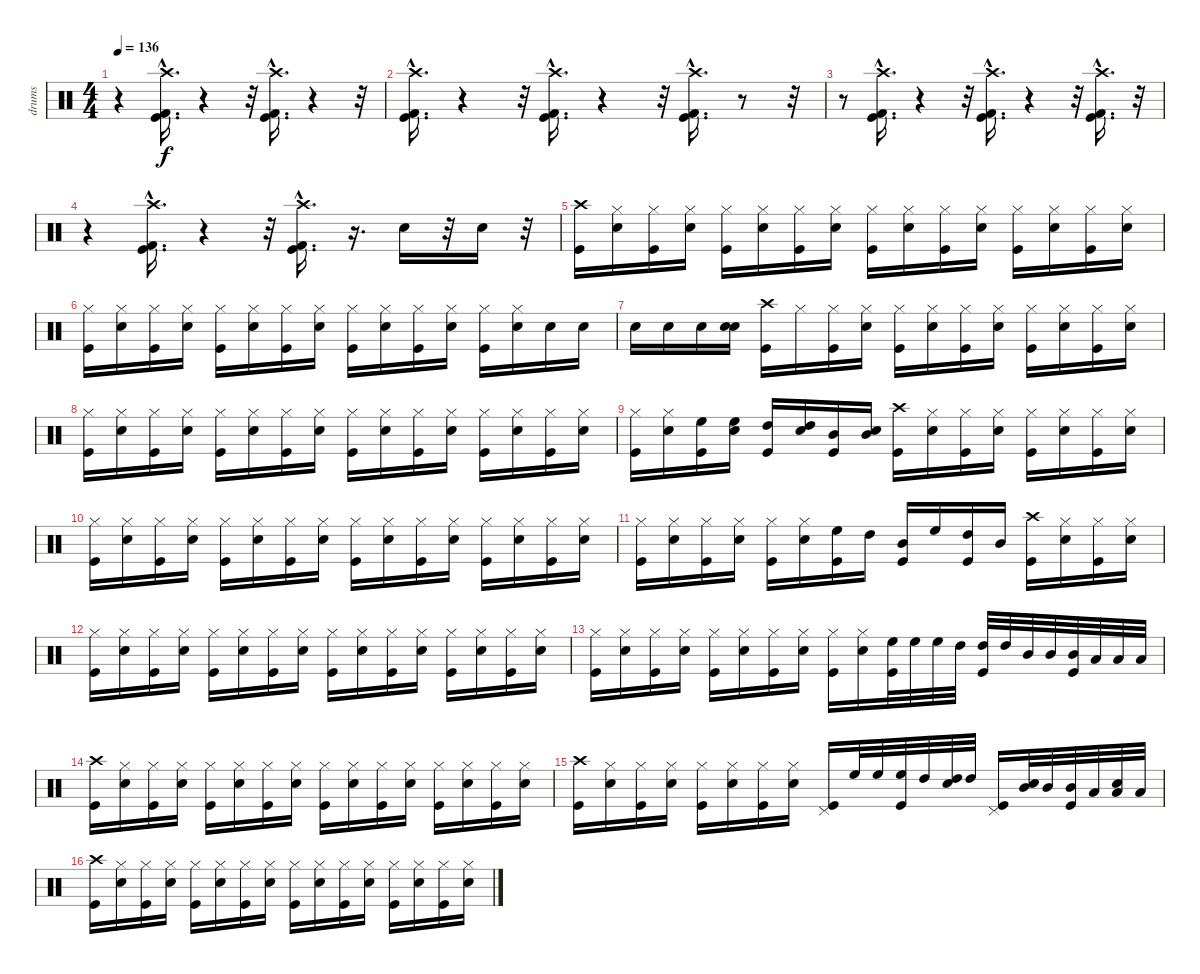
\track ("drums" "drums") {instrument percussion}
\staff {score}
\articulation defaults
\ts (4 4)
\tempo 136
\clef neutral
\ks c
r.4{dy f} ("Crash high (hit)"{hac} "Kick (hit) 2" "Kick (hit)").16{d} r.4 r.32 ("Kick (hit) 2" "Kick (hit)" "Crash high (hit)"{hac}).16{d} r.4 r.32 |
("Crash high (hit)"{hac} "Kick (hit) 2" "Kick (hit)").16{d} r.4 r.32 ("Kick (hit) 2" "Kick (hit)" "Crash high (hit)"{hac}).16{d} r.4 r.32 ("Crash high (hit)"{hac} "Kick (hit) 2" "Kick (hit)").16{d} r.8 r.32 |
r.8 ("Kick (hit) 2" "Kick (hit)" "Crash high (hit)"{hac}).16{d} r.4 r.32 ("Crash high (hit)"{hac} "Kick (hit) 2" "Kick (hit)").16{d} r.4 r.32 ("Kick (hit) 2" "Kick (hit)" "Crash high (hit)"{hac}).16{d} r.32 |
r.4 ("Crash high (hit)"{hac} "Kick (hit) 2" "Kick (hit)").16{d} r.4 r.32 ("Kick (hit) 2" "Kick (hit)" "Crash high (hit)"{hac}).16{d} r.16{d} "Snare (hit) 2".16 r.32 "Snare (hit) 2".16 r.32 |
("Crash high (hit)" "Kick (hit)").16 ("Hi-Hat (closed)" "Snare (hit) 2").16 ("Hi-Hat (closed)" "Kick (hit)").16 ("Hi-Hat (closed)" "Snare (hit) 2").16 ("Hi-Hat (closed)" "Kick (hit)").16 ("Hi-Hat (closed)" "Snare (hit) 2").16 ("Hi-Hat (closed)" "Kick (hit)").16 ("Hi-Hat (closed)" "Snare (hit) 2").16 ("Hi-Hat (closed)" "Kick (hit)").16 ("Hi-Hat (closed)" "Snare (hit) 2").16 ("Hi-Hat (closed)" "Kick (hit)").16 ("Hi-Hat (closed)" "Snare (hit) 2").16 ("Hi-Hat (closed)" "Kick (hit)").16 ("Hi-Hat (closed)" "Snare (hit) 2").16 ("Hi-Hat (closed)" "Kick (hit)").16 ("Hi-Hat (closed)" "Snare (hit) 2").16 |
("Hi-Hat (closed)" "Kick (hit)").16 ("Hi-Hat (closed)" "Snare (hit) 2").16 ("Hi-Hat (closed)" "Kick (hit)").16 ("Hi-Hat (closed)" "Snare (hit) 2").16 ("Hi-Hat (closed)" "Kick (hit)").16 ("Hi-Hat (closed)" "Snare (hit) 2").16 ("Hi-Hat (closed)" "Kick (hit)").16 ("Hi-Hat (closed)" "Snare (hit) 2").16 ("Hi-Hat (closed)" "Kick (hit)").16 ("Hi-Hat (closed)" "Snare (hit) 2").16 ("Hi-Hat (closed)" "Kick (hit)").16 ("Hi-Hat (closed)" "Snare (hit) 2").16 ("Hi-Hat (closed)" "Kick (hit)").16 ("Hi-Hat (closed)" "Snare (hit) 2").16 "Snare (hit) 2".16 "Snare (hit) 2".16 |
"Snare (hit) 2".16 "Snare (hit) 2".16 "Snare (hit) 2".16 ("Snare (hit) 2" "Snare (hit) 2").16 ("Crash high (hit)" "Kick (hit)").16 "Hi-Hat (closed)".16 ("Hi-Hat (closed)" "Kick (hit)").16 ("Hi-Hat (closed)" "Snare (hit) 2").16 ("Hi-Hat (closed)" "Kick (hit)").16 ("Hi-Hat (closed)" "Snare (hit) 2").16 ("Hi-Hat (closed)" "Kick (hit)").16 ("Hi-Hat (closed)" "Snare (hit) 2").16 ("Hi-Hat (closed)" "Kick (hit)").16 ("Hi-Hat (closed)" "Snare (hit) 2").16 ("Hi-Hat (closed)" "Kick (hit)").16 ("Hi-Hat (closed)" "Snare (hit) 2").16 |
("Hi-Hat (closed)" "Kick (hit)").16 ("Hi-Hat (closed)" "Snare (hit) 2").16 ("Hi-Hat (closed)" "Kick (hit)").16 ("Hi-Hat (closed)" "Snare (hit) 2").16 ("Hi-Hat (closed)" "Kick (hit)").16 ("Hi-Hat (closed)" "Snare (hit) 2").16 ("Hi-Hat (closed)" "Kick (hit)").16 ("Hi-Hat (closed)" "Snare (hit) 2").16 ("Hi-Hat (closed)" "Kick (hit)").16 ("Hi-Hat (closed)" "Snare (hit) 2").16 ("Hi-Hat (closed)" "Kick (hit)").16 ("Hi-Hat (closed)" "Snare (hit) 2").16 ("Hi-Hat (closed)" "Kick (hit)").16 ("Hi-Hat (closed)" "Snare (hit) 2").16 ("Hi-Hat (closed)" "Kick (hit)").16 ("Hi-Hat (closed)" "Snare (hit) 2").16 |
("Hi-Hat (closed)" "Kick (hit)").16 ("Hi-Hat (closed)" "Snare (hit) 2").16 ("High Floor Tom (hit)" "Kick (hit)").16 ("High Floor Tom (hit)" "Snare (hit) 2").16 ("High Tom (hit)" "Kick (hit)").16 ("High Tom (hit)" "Snare (hit) 2").16 ("Mid Tom (hit)" "Kick (hit)").16 ("Mid Tom (hit)" "Snare (hit) 2").16 ("Crash high (hit)" "Kick (hit)").16 ("Hi-Hat (closed)" "Snare (hit) 2").16 ("Hi-Hat (closed)" "Kick (hit)").16 ("Hi-Hat (closed)" "Snare (hit) 2").16 ("Hi-Hat (closed)" "Kick (hit)").16 ("Hi-Hat (closed)" "Snare (hit) 2").16 ("Hi-Hat (closed)" "Kick (hit)").16 ("Hi-Hat (closed)" "Snare (hit) 2").16 |
("Hi-Hat (closed)" "Kick (hit)").16 ("Hi-Hat (closed)" "Snare (hit) 2").16 ("Hi-Hat (closed)" "Kick (hit)").16 ("Hi-Hat (closed)" "Snare (hit) 2").16 ("Hi-Hat (closed)" "Kick (hit)").16 ("Hi-Hat (closed)" "Snare (hit) 2").16 ("Hi-Hat (closed)" "Kick (hit)").16 ("Hi-Hat (closed)" "Snare (hit) 2").16 ("Hi-Hat (closed)" "Kick (hit)").16 ("Hi-Hat (closed)" "Snare (hit) 2").16 ("Hi-Hat (closed)" "Kick (hit)").16 ("Hi-Hat (closed)" "Snare (hit) 2").16 ("Hi-Hat (closed)" "Kick (hit)").16 ("Hi-Hat (closed)" "Snare (hit) 2").16 ("Hi-Hat (closed)" "Kick (hit)").16 ("Hi-Hat (closed)" "Snare (hit) 2").16 |
("Hi-Hat (closed)" "Kick (hit)").16 ("Hi-Hat (closed)" "Snare (hit) 2").16 ("Hi-Hat (closed)" "Kick (hit)").16 ("Hi-Hat (closed)" "Snare (hit) 2").16 ("Hi-Hat (closed)" "Kick (hit)").16 ("Hi-Hat (closed)" "Snare (hit) 2").16 ("High Floor Tom (hit)" "Kick (hit)").16 "High Tom (hit)".16 ("Mid Tom (hit)" "Kick (hit)").16 "High Floor Tom (hit)".16 ("Kick (hit)" "High Tom (hit)").16 "Mid Tom (hit)".16 ("Crash high (hit)" "Kick (hit)").16 ("Hi-Hat (closed)" "Snare (hit) 2").16 ("Hi-Hat (closed)" "Kick (hit)").16 ("Hi-Hat (closed)" "Snare (hit) 2").16 |
("Hi-Hat (closed)" "Kick (hit)").16 ("Hi-Hat (closed)" "Snare (hit) 2").16 ("Hi-Hat (closed)" "Kick (hit)").16 ("Hi-Hat (closed)" "Snare (hit) 2").16 ("Hi-Hat (closed)" "Kick (hit)").16 ("Hi-Hat (closed)" "Snare (hit) 2").16 ("Hi-Hat (closed)" "Kick (hit)").16 ("Hi-Hat (closed)" "Snare (hit) 2").16 ("Hi-Hat (closed)" "Kick (hit)").16 ("Hi-Hat (closed)" "Snare (hit) 2").16 ("Hi-Hat (closed)" "Kick (hit)").16 ("Hi-Hat (closed)" "Snare (hit) 2").16 ("Hi-Hat (closed)" "Kick (hit)").16 ("Hi-Hat (closed)" "Snare (hit) 2").16 ("Hi-Hat (closed)" "Kick (hit)").16 ("Hi-Hat (closed)" "Snare (hit) 2").16 |
("Hi-Hat (closed)" "Kick (hit)").16 ("Hi-Hat (closed)" "Snare (hit) 2").16 ("Hi-Hat (closed)" "Kick (hit)").16 ("Hi-Hat (closed)" "Snare (hit) 2").16 ("Hi-Hat (closed)" "Kick (hit)").16 ("Hi-Hat (closed)" "Snare (hit) 2").16 ("Hi-Hat (closed)" "Kick (hit)").16 ("Hi-Hat (closed)" "Snare (hit) 2").16 ("Hi-Hat (closed)" "Kick (hit)").16 ("Hi-Hat (closed)" "Snare (hit) 2").16 ("High Floor Tom (hit)" "Kick (hit)").32 "High Floor Tom (hit)".32 "High Floor Tom (hit)".32 "High Tom (hit)".32 ("High Tom (hit)" "Kick (hit)").32 "High Tom (hit)".32 "Mid Tom (hit)".32 "Mid Tom (hit)".32 ("Mid Tom (hit)" "Kick (hit)").32 "Low Tom (hit)".32 "Low Tom (hit)".32 "Low Tom (hit)".32 |
("Crash high (hit)" "Kick (hit)").16 ("Hi-Hat (closed)" "Snare (hit) 2").16 ("Hi-Hat (closed)" "Kick (hit)").16 ("Hi-Hat (closed)" "Snare (hit) 2").16 ("Hi-Hat (closed)" "Kick (hit)").16 ("Hi-Hat (closed)" "Snare (hit) 2").16 ("Hi-Hat (closed)" "Kick (hit)").16 ("Hi-Hat (closed)" "Snare (hit) 2").16 ("Hi-Hat (closed)" "Kick (hit)").16 ("Hi-Hat (closed)" "Snare (hit) 2").16 ("Hi-Hat (closed)" "Kick (hit)").16 ("Hi-Hat (closed)" "Snare (hit) 2").16 ("Hi-Hat (closed)" "Kick (hit)").16 ("Hi-Hat (closed)" "Snare (hit) 2").16 ("Hi-Hat (closed)" "Kick (hit)").16 ("Hi-Hat (closed)" "Snare (hit) 2").16 |
("Crash high (hit)" "Kick (hit)").16 ("Hi-Hat (closed)" "Snare (hit) 2").16 ("Hi-Hat (closed)" "Kick (hit)").16 ("Hi-Hat (closed)" "Snare (hit) 2").16 ("Hi-Hat (closed)" "Kick (hit)").16 ("Hi-Hat (closed)" "Snare (hit) 2").16 ("Hi-Hat (closed)" "Kick (hit)").16 ("Hi-Hat (closed)" "Snare (hit) 2").16 ("Pedal Hi-Hat (hit)" "Kick (hit)").16 "High Floor Tom (hit)".32 "High Floor Tom (hit)".32 ("High Floor Tom (hit)" "Kick (hit)").32 "High Tom (hit)".32 ("High Tom (hit)" "Snare (hit) 2").32 "High Tom (hit)".32 ("Pedal Hi-Hat (hit)" "Kick (hit)").16 ("Mid Tom (hit)" "Snare (hit) 2").32 "Mid Tom (hit)".32 ("Mid Tom (hit)" "Kick (hit)").32 "Low Tom (hit)".32 ("Low Tom (hit)" "Snare (hit) 2").32 "Low Tom (hit)".32 |
("Crash high (hit)" "Kick (hit)").16 ("Hi-Hat (closed)" "Snare (hit) 2").16 ("Hi-Hat (closed)" "Kick (hit)").16 ("Hi-Hat (closed)" "Snare (hit) 2").16 ("Hi-Hat (closed)" "Kick (hit)").16 ("Hi-Hat (closed)" "Snare (hit) 2").16 ("Hi-Hat (closed)" "Kick (hit)").16 ("Hi-Hat (closed)" "Snare (hit) 2").16 ("Hi-Hat (closed)" "Kick (hit)").16 ("Hi-Hat (closed)" "Snare (hit) 2").16 ("Hi-Hat (closed)" "Kick (hit)").16 ("Hi-Hat (closed)" "Snare (hit) 2").16 ("Hi-Hat (closed)" "Kick (hit)").16 ("Hi-Hat (closed)" "Snare (hit) 2").16 ("Hi-Hat (closed)" "Kick (hit)").16 ("Hi-Hat (closed)" "Snare (hit) 2").16
